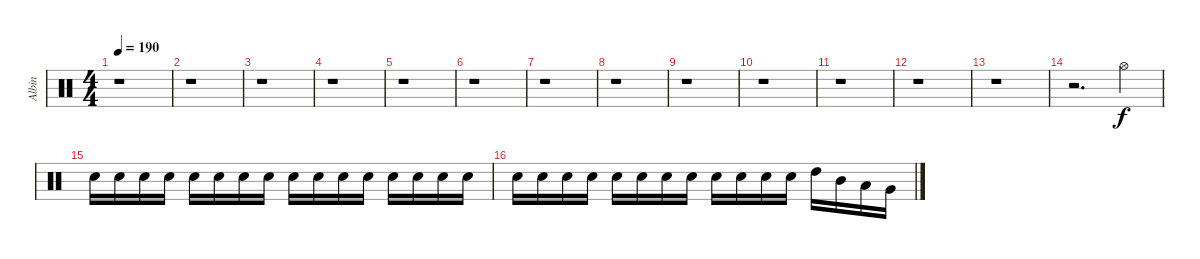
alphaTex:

\track ("Albin" "Albin") {instrument percussion}
\staff {score}
\articulation defaults
\ts (4 4)
\tempo 190
\clef neutral
\ks c
r.1{dy f} |
r.1 |
r.1 |
r.1 |
r.1 |
r.1 |
r.1 |
r.1 |
r.1 |
r.1 |
r.1 |
r.1 |
r.1 |
r.2{d} "Hi-Hat (open)".4 |
"Electric Snare (hit)".16 "Electric Snare (hit)".16 "Electric Snare (hit)".16 "Electric Snare (hit)".16 "Electric Snare (hit)".16 "Electric Snare (hit)".16 "Electric Snare (hit)".16 "Electric Snare (hit)".16 "Electric Snare (hit)".16 "Electric Snare (hit)".16 "Electric Snare (hit)".16 "Electric Snare (hit)".16 "Electric Snare (hit)".16 "Electric Snare (hit)".16 "Electric Snare (hit)".16 "Electric Snare (hit)".16 |
"Electric Snare (hit)".16 "Electric Snare (hit)".16 "Electric Snare (hit)".16 "Electric Snare (hit)".16 "Electric Snare (hit)".16 "Electric Snare (hit)".16 "Electric Snare (hit)".16 "Electric Snare (hit)".16 "Electric Snare (hit)".16 "Electric Snare (hit)".16 "Electric Snare (hit)".16 "Electric Snare (hit)".16 "High Tom (hit)".16 "Mid Tom (hit)".16 "Low Tom (hit)".16 "Very Low Tom (hit)".16
